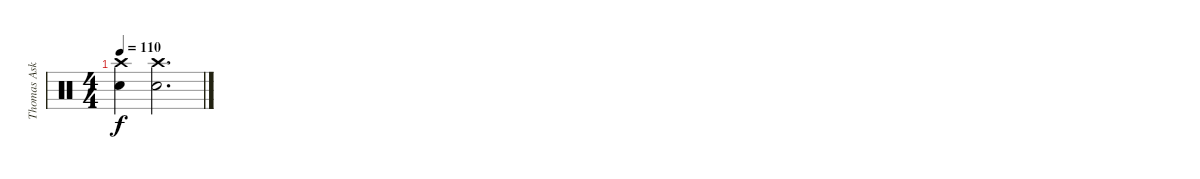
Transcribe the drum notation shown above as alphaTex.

\track ("Thomas Asklund" "Thomas Ask") {instrument percussion}
\staff {score}
\articulation defaults
\ts (4 4)
\tempo 110
\clef neutral
\ks c
("Crash high (hit)" "Snare (hit) 2").4{dy f} ("Snare (hit) 2" "Crash high (hit)").2{d}
